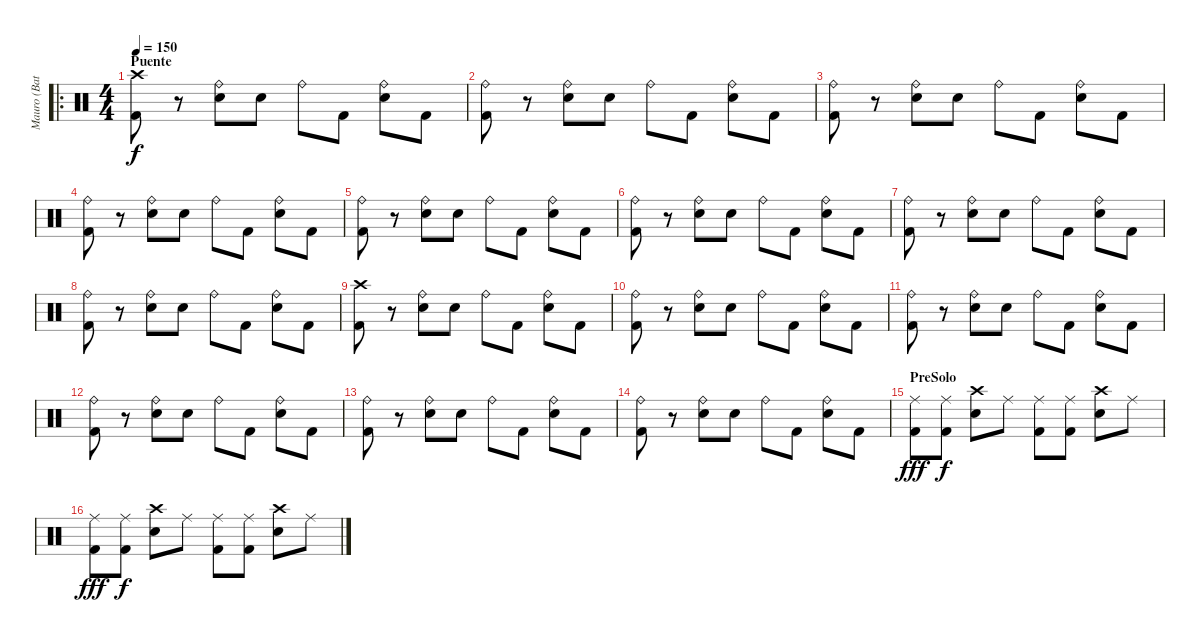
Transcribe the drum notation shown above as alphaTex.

\track ("Mauro (Bateria)" "Mauro (Bat") {instrument percussion}
\staff {score}
\articulation defaults
\ro
\ts (4 4)
\section ("" "Puente")
\tempo 150
\clef neutral
\ks c
("Crash high (hit)" "Kick (hit) 2").8{dy f} r.8 ("Ride (bell)" "Snare (hit) 2").8 "Snare (hit) 2".8 "Ride (bell)".8 "Kick (hit) 2".8 ("Ride (bell)" "Snare (hit) 2").8 "Kick (hit) 2".8 |
("Ride (bell)" "Kick (hit) 2").8 r.8 ("Ride (bell)" "Snare (hit) 2").8 "Snare (hit) 2".8 "Ride (bell)".8 "Kick (hit) 2".8 ("Ride (bell)" "Snare (hit) 2").8 "Kick (hit) 2".8 |
("Ride (bell)" "Kick (hit) 2").8 r.8 ("Ride (bell)" "Snare (hit) 2").8 "Snare (hit) 2".8 "Ride (bell)".8 "Kick (hit) 2".8 ("Ride (bell)" "Snare (hit) 2").8 "Kick (hit) 2".8 |
("Ride (bell)" "Kick (hit) 2").8 r.8 ("Ride (bell)" "Snare (hit) 2").8 "Snare (hit) 2".8 "Ride (bell)".8 "Kick (hit) 2".8 ("Ride (bell)" "Snare (hit) 2").8 "Kick (hit) 2".8 |
("Ride (bell)" "Kick (hit) 2").8 r.8 ("Ride (bell)" "Snare (hit) 2").8 "Snare (hit) 2".8 "Ride (bell)".8 "Kick (hit) 2".8 ("Ride (bell)" "Snare (hit) 2").8 "Kick (hit) 2".8 |
("Ride (bell)" "Kick (hit) 2").8 r.8 ("Ride (bell)" "Snare (hit) 2").8 "Snare (hit) 2".8 "Ride (bell)".8 "Kick (hit) 2".8 ("Ride (bell)" "Snare (hit) 2").8 "Kick (hit) 2".8 |
("Ride (bell)" "Kick (hit) 2").8 r.8 ("Ride (bell)" "Snare (hit) 2").8 "Snare (hit) 2".8 "Ride (bell)".8 "Kick (hit) 2".8 ("Ride (bell)" "Snare (hit) 2").8 "Kick (hit) 2".8 |
("Ride (bell)" "Kick (hit) 2").8 r.8 ("Ride (bell)" "Snare (hit) 2").8 "Snare (hit) 2".8 "Ride (bell)".8 "Kick (hit) 2".8 ("Ride (bell)" "Snare (hit) 2").8 "Kick (hit) 2".8 |
("Crash high (hit)" "Kick (hit) 2").8 r.8 ("Ride (bell)" "Snare (hit) 2").8 "Snare (hit) 2".8 "Ride (bell)".8 "Kick (hit) 2".8 ("Ride (bell)" "Snare (hit) 2").8 "Kick (hit) 2".8 |
("Ride (bell)" "Kick (hit) 2").8 r.8 ("Ride (bell)" "Snare (hit) 2").8 "Snare (hit) 2".8 "Ride (bell)".8 "Kick (hit) 2".8 ("Ride (bell)" "Snare (hit) 2").8 "Kick (hit) 2".8 |
("Ride (bell)" "Kick (hit) 2").8 r.8 ("Ride (bell)" "Snare (hit) 2").8 "Snare (hit) 2".8 "Ride (bell)".8 "Kick (hit) 2".8 ("Ride (bell)" "Snare (hit) 2").8 "Kick (hit) 2".8 |
("Ride (bell)" "Kick (hit) 2").8 r.8 ("Ride (bell)" "Snare (hit) 2").8 "Snare (hit) 2".8 "Ride (bell)".8 "Kick (hit) 2".8 ("Ride (bell)" "Snare (hit) 2").8 "Kick (hit) 2".8 |
("Ride (bell)" "Kick (hit) 2").8 r.8 ("Ride (bell)" "Snare (hit) 2").8 "Snare (hit) 2".8 "Ride (bell)".8 "Kick (hit) 2".8 ("Ride (bell)" "Snare (hit) 2").8 "Kick (hit) 2".8 |
("Ride (bell)" "Kick (hit) 2").8 r.8 ("Ride (bell)" "Snare (hit) 2").8 "Snare (hit) 2".8 "Ride (bell)".8 "Kick (hit) 2".8 ("Ride (bell)" "Snare (hit) 2").8 "Kick (hit) 2".8 |
\section ("" "PreSolo")
("Ride (middle)" "Kick (hit) 2").8{dy fff} ("Ride (middle)" "Kick (hit) 2").8{dy f} ("Crash high (hit)" "Snare (hit) 2").8 "Ride (middle)".8 ("Ride (middle)" "Kick (hit) 2").8 ("Ride (middle)" "Kick (hit) 2").8 ("Crash high (hit)" "Snare (hit) 2").8 "Ride (middle)".8 |
("Ride (middle)" "Kick (hit) 2").8{dy fff} ("Ride (middle)" "Kick (hit) 2").8{dy f} ("Crash high (hit)" "Snare (hit) 2").8 "Ride (middle)".8 ("Ride (middle)" "Kick (hit) 2").8 ("Ride (middle)" "Kick (hit) 2").8 ("Crash high (hit)" "Snare (hit) 2").8 "Ride (middle)".8
